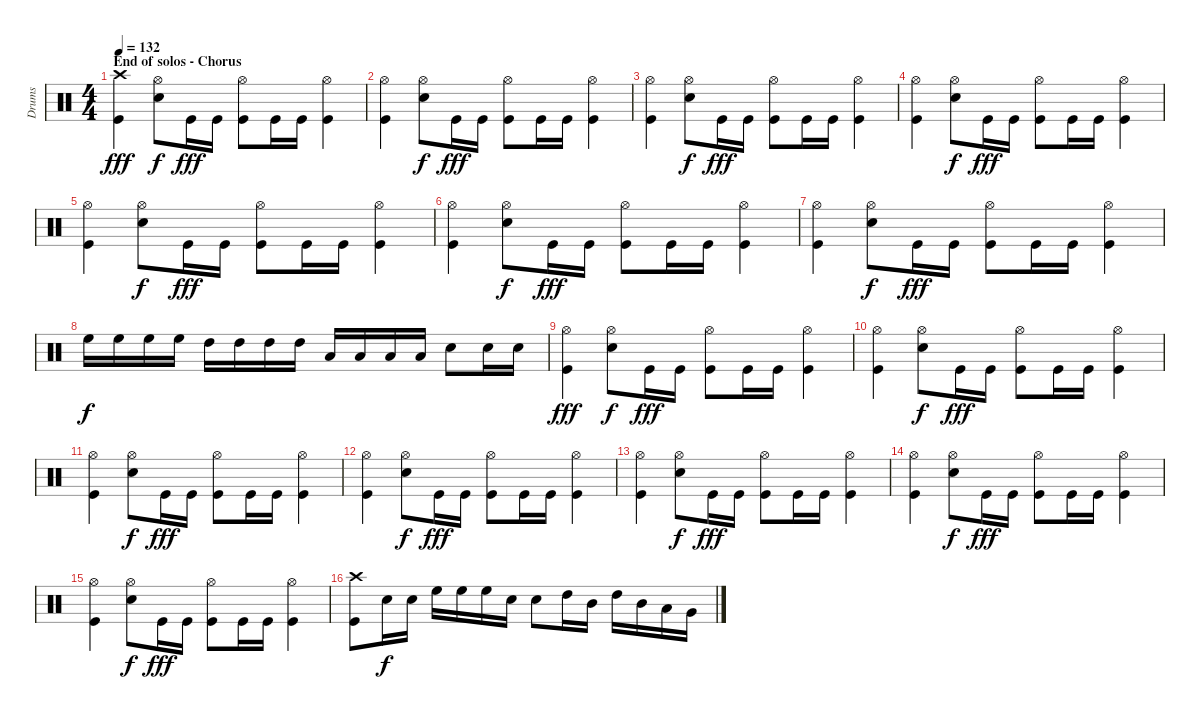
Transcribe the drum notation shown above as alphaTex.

\track ("Drums" "Drums") {instrument percussion}
\staff {score}
\articulation defaults
\ts (4 4)
\section ("" "End of solos - Chorus")
\tempo 132
\clef neutral
\ks c
("Crash high (hit)" "Kick (hit)").4{dy fff} ("Hi-Hat (open)" "Snare (hit) 2").8{dy f} "Kick (hit)".16{dy fff} "Kick (hit)".16 ("Hi-Hat (open)" "Kick (hit)").8 "Kick (hit)".16 "Kick (hit)".16 ("Hi-Hat (open)" "Kick (hit)").4 |
("Hi-Hat (open)" "Kick (hit)").4 ("Hi-Hat (open)" "Snare (hit) 2").8{dy f} "Kick (hit)".16{dy fff} "Kick (hit)".16 ("Hi-Hat (open)" "Kick (hit)").8 "Kick (hit)".16 "Kick (hit)".16 ("Hi-Hat (open)" "Kick (hit)").4 |
("Hi-Hat (open)" "Kick (hit)").4 ("Hi-Hat (open)" "Snare (hit) 2").8{dy f} "Kick (hit)".16{dy fff} "Kick (hit)".16 ("Hi-Hat (open)" "Kick (hit)").8 "Kick (hit)".16 "Kick (hit)".16 ("Hi-Hat (open)" "Kick (hit)").4 |
("Hi-Hat (open)" "Kick (hit)").4 ("Hi-Hat (open)" "Snare (hit) 2").8{dy f} "Kick (hit)".16{dy fff} "Kick (hit)".16 ("Hi-Hat (open)" "Kick (hit)").8 "Kick (hit)".16 "Kick (hit)".16 ("Hi-Hat (open)" "Kick (hit)").4 |
("Hi-Hat (open)" "Kick (hit)").4 ("Hi-Hat (open)" "Snare (hit) 2").8{dy f} "Kick (hit)".16{dy fff} "Kick (hit)".16 ("Hi-Hat (open)" "Kick (hit)").8 "Kick (hit)".16 "Kick (hit)".16 ("Hi-Hat (open)" "Kick (hit)").4 |
("Hi-Hat (open)" "Kick (hit)").4 ("Hi-Hat (open)" "Snare (hit) 2").8{dy f} "Kick (hit)".16{dy fff} "Kick (hit)".16 ("Hi-Hat (open)" "Kick (hit)").8 "Kick (hit)".16 "Kick (hit)".16 ("Hi-Hat (open)" "Kick (hit)").4 |
("Hi-Hat (open)" "Kick (hit)").4 ("Hi-Hat (open)" "Snare (hit) 2").8{dy f} "Kick (hit)".16{dy fff} "Kick (hit)".16 ("Hi-Hat (open)" "Kick (hit)").8 "Kick (hit)".16 "Kick (hit)".16 ("Hi-Hat (open)" "Kick (hit)").4 |
"High Floor Tom (hit)".16{dy f} "High Floor Tom (hit)".16 "High Floor Tom (hit)".16 "High Floor Tom (hit)".16 "High Tom (hit)".16 "High Tom (hit)".16 "High Tom (hit)".16 "High Tom (hit)".16 "Low Tom (hit)".16 "Low Tom (hit)".16 "Low Tom (hit)".16 "Low Tom (hit)".16 "Snare (hit) 2".8 "Snare (hit) 2".16 "Snare (hit) 2".16 |
("Hi-Hat (open)" "Kick (hit)").4{dy fff} ("Hi-Hat (open)" "Snare (hit) 2").8{dy f} "Kick (hit)".16{dy fff} "Kick (hit)".16 ("Hi-Hat (open)" "Kick (hit)").8 "Kick (hit)".16 "Kick (hit)".16 ("Hi-Hat (open)" "Kick (hit)").4 |
("Hi-Hat (open)" "Kick (hit)").4 ("Hi-Hat (open)" "Snare (hit) 2").8{dy f} "Kick (hit)".16{dy fff} "Kick (hit)".16 ("Hi-Hat (open)" "Kick (hit)").8 "Kick (hit)".16 "Kick (hit)".16 ("Hi-Hat (open)" "Kick (hit)").4 |
("Hi-Hat (open)" "Kick (hit)").4 ("Hi-Hat (open)" "Snare (hit) 2").8{dy f} "Kick (hit)".16{dy fff} "Kick (hit)".16 ("Hi-Hat (open)" "Kick (hit)").8 "Kick (hit)".16 "Kick (hit)".16 ("Hi-Hat (open)" "Kick (hit)").4 |
("Hi-Hat (open)" "Kick (hit)").4 ("Hi-Hat (open)" "Snare (hit) 2").8{dy f} "Kick (hit)".16{dy fff} "Kick (hit)".16 ("Hi-Hat (open)" "Kick (hit)").8 "Kick (hit)".16 "Kick (hit)".16 ("Hi-Hat (open)" "Kick (hit)").4 |
("Hi-Hat (open)" "Kick (hit)").4 ("Hi-Hat (open)" "Snare (hit) 2").8{dy f} "Kick (hit)".16{dy fff} "Kick (hit)".16 ("Hi-Hat (open)" "Kick (hit)").8 "Kick (hit)".16 "Kick (hit)".16 ("Hi-Hat (open)" "Kick (hit)").4 |
("Hi-Hat (open)" "Kick (hit)").4 ("Hi-Hat (open)" "Snare (hit) 2").8{dy f} "Kick (hit)".16{dy fff} "Kick (hit)".16 ("Hi-Hat (open)" "Kick (hit)").8 "Kick (hit)".16 "Kick (hit)".16 ("Hi-Hat (open)" "Kick (hit)").4 |
("Hi-Hat (open)" "Kick (hit)").4 ("Hi-Hat (open)" "Snare (hit) 2").8{dy f} "Kick (hit)".16{dy fff} "Kick (hit)".16 ("Hi-Hat (open)" "Kick (hit)").8 "Kick (hit)".16 "Kick (hit)".16 ("Hi-Hat (open)" "Kick (hit)").4 |
("Crash high (hit)" "Kick (hit)").8 "Snare (hit) 2".16{dy f} "Snare (hit) 2".16 "High Floor Tom (hit)".16 "High Floor Tom (hit)".16 "High Floor Tom (hit)".16 "Snare (hit) 2".16 "Snare (hit) 2".8 "High Tom (hit)".16 "Mid Tom (hit)".16 "High Tom (hit)".16 "Mid Tom (hit)".16 "Low Tom (hit)".16 "Very Low Tom (hit)".16
